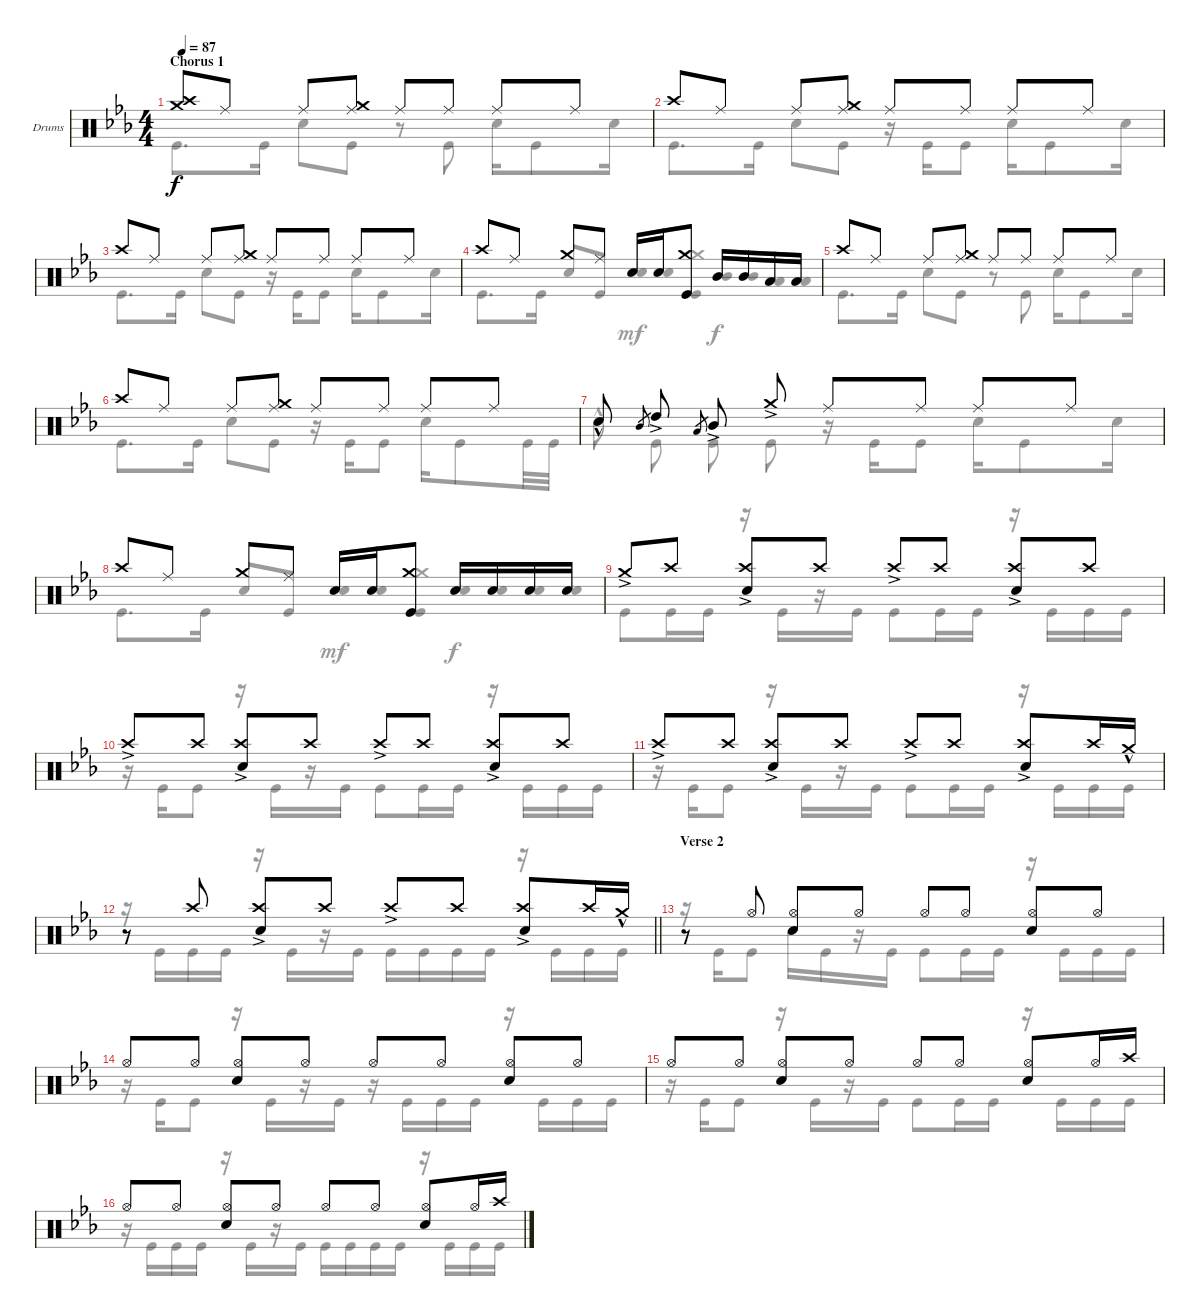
\bracketExtendMode groupsimilarinstruments
\firstSystemTrackNameOrientation horizontal
\otherSystemsTrackNameOrientation horizontal
\track ("Mike Wengren" "Drums") {instrument percussion}
\staff {score}
\articulation defaults
\voice
\ts (4 4)
\section ("" "Chorus 1")
\tempo 87
\clef neutral
\ks cminor
("Crash high (hit)" "Crash medium (hit)").8{dy f} "Ride (middle)".8 "Ride (middle)".8 ("Crash medium (hit)" "Ride (middle)").8 "Ride (middle)".8 "Ride (middle)".8 "Ride (middle)".8 "Ride (middle)".8 |
"Crash high (hit)".8 "Ride (middle)".8 "Ride (middle)".8 ("Crash medium (hit)" "Ride (middle)").8 "Ride (middle)".8 "Ride (middle)".8 "Ride (middle)".8 "Ride (middle)".8 |
"Crash high (hit)".8 "Ride (middle)".8 "Ride (middle)".8 ("Crash medium (hit)" "Ride (middle)").8 "Ride (middle)".8 "Ride (middle)".8 "Ride (middle)".8 "Ride (middle)".8 |
"Crash high (hit)".8 "Ride (middle)".8 "Crash medium (hit)".8 "Ride (middle)".8 "Snare (hit) 2".16 "Snare (hit) 2".16 ("Crash medium (hit)" "Kick (hit)").8 "Mid Tom (hit)".16 "Mid Tom (hit)".16 "Low Tom (hit)".16 "Low Tom (hit)".16 |
"Crash high (hit)".8 "Ride (middle)".8 "Ride (middle)".8 ("Crash medium (hit)" "Ride (middle)").8 "Ride (middle)".8 "Ride (middle)".8 "Ride (middle)".8 "Ride (middle)".8 |
"Crash high (hit)".8 "Ride (middle)".8 "Ride (middle)".8 ("Crash medium (hit)" "Ride (middle)").8 "Ride (middle)".8 "Ride (middle)".8 "Ride (middle)".8 "Ride (middle)".8 |
"Snare (hit) 2"{hac}.8{beam split} "Mid Tom (hit)".8{gr beam split} "High Tom (hit)"{ac}.8 "Low Tom (hit)".8{gr} "Mid Tom (hit)"{ac}.8{beam split} "Crash medium (hit)"{ac}.8 "Ride (middle)".8 "Ride (middle)".8 "Ride (middle)".8 "Ride (middle)".8 |
"Crash high (hit)".8 "Ride (middle)".8 "Crash medium (hit)".8 "Ride (middle)".8 "Snare (hit) 2".16 "Snare (hit) 2".16 ("Crash medium (hit)" "Kick (hit)").8 "Snare (hit) 2".16 "Snare (hit) 2".16 "Snare (hit) 2".16 "Snare (hit) 2".16 |
"Crash medium (hit)"{ac}.8 "Crash high (hit)".8 ("Crash high (hit)"{ac} "Snare (hit) 2").8 "Crash high (hit)".8 "Crash high (hit)"{ac}.8 "Crash high (hit)".8 ("Crash high (hit)"{ac} "Snare (hit) 2").8 "Crash high (hit)".8 |
"Crash high (hit)"{ac}.8 "Crash high (hit)".8 ("Crash high (hit)"{ac} "Snare (hit) 2").8 "Crash high (hit)".8 "Crash high (hit)"{ac}.8 "Crash high (hit)".8 ("Crash high (hit)"{ac} "Snare (hit) 2").8 "Crash high (hit)".8 |
"Crash high (hit)"{ac}.8 "Crash high (hit)".8 ("Crash high (hit)"{ac} "Snare (hit) 2").8 "Crash high (hit)".8 "Crash high (hit)"{ac}.8 "Crash high (hit)".8 ("Crash high (hit)"{ac} "Snare (hit) 2").8 "Crash high (hit)".16 "Crash medium (hit)"{hac}.16 |
\barLineRight lightlight
r.8 "Crash high (hit)".8 ("Crash high (hit)"{ac} "Snare (hit) 2").8 "Crash high (hit)".8 "Crash high (hit)"{ac}.8 "Crash high (hit)".8 ("Crash high (hit)"{ac} "Snare (hit) 2").8 "Crash high (hit)".16 "Crash medium (hit)"{hac}.16 |
\section ("" "Verse 2")
r.8 "Hi-Hat (open)".8 ("Hi-Hat (open)" "Snare (hit) 2").8 "Hi-Hat (open)".8 "Hi-Hat (open)".8 "Hi-Hat (open)".8 ("Hi-Hat (open)" "Snare (hit) 2").8 "Hi-Hat (open)".8 |
"Hi-Hat (open)".8 "Hi-Hat (open)".8 ("Hi-Hat (open)" "Snare (hit) 2").8 "Hi-Hat (open)".8 "Hi-Hat (open)".8 "Hi-Hat (open)".8 ("Hi-Hat (open)" "Snare (hit) 2").8 "Hi-Hat (open)".8 |
"Hi-Hat (open)".8 "Hi-Hat (open)".8 ("Hi-Hat (open)" "Snare (hit) 2").8 "Hi-Hat (open)".8 "Hi-Hat (open)".8 "Hi-Hat (open)".8 ("Hi-Hat (open)" "Snare (hit) 2").8 "Hi-Hat (open)".16 "Crash high (hit)".16 |
"Hi-Hat (open)".8 "Hi-Hat (open)".8 ("Hi-Hat (open)" "Snare (hit) 2").8 "Hi-Hat (open)".8 "Hi-Hat (open)".8 "Hi-Hat (open)".8 ("Hi-Hat (open)" "Snare (hit) 2").8 "Hi-Hat (open)".16 "Crash high (hit)".16
\voice
\clef neutral
\ottava regular
\simile none
\ks cminor "Kick (hit)".8{d dy f} "Kick (hit)".16 "Snare (hit) 2".8 "Kick (hit)".8
r.8 "Kick (hit)".8 "Snare (hit) 2".16 "Kick (hit)".8 "Snare (hit) 2".16 |
"Kick (hit)".8{d} "Kick (hit)".16 "Snare (hit) 2".8 "Kick (hit)".8 r.16 "Kick (hit)".16 "Kick (hit)".8 "Snare (hit) 2".16 "Kick (hit)".8 "Snare (hit) 2".16 |
"Kick (hit)".8{d} "Kick (hit)".16 "Snare (hit) 2".8 "Kick (hit)".8 r.16 "Kick (hit)".16 "Kick (hit)".8 "Snare (hit) 2".16 "Kick (hit)".8 "Snare (hit) 2".16 |
"Kick (hit)".8{d} "Kick (hit)".16 "Snare (hit) 2".8 "Kick (hit)".8 "Snare (hit) 2".16{dy mf beam invert} "Snare (hit) 2".16 ("Crash medium (hit)" "Kick (hit)").8 "Mid Tom (hit)".16{dy f beam invert} "Mid Tom (hit)".16 "Low Tom (hit)".16 "Low Tom (hit)".16 |
"Kick (hit)".8{d} "Kick (hit)".16 "Snare (hit) 2".8 "Kick (hit)".8 r.8 "Kick (hit)".8 "Snare (hit) 2".16 "Kick (hit)".8 "Snare (hit) 2".16 |
"Kick (hit)".8{d} "Kick (hit)".16 "Snare (hit) 2".8 "Kick (hit)".8 r.16 "Kick (hit)".16 "Kick (hit)".8 "Snare (hit) 2".16 "Kick (hit)".8 "Kick (hit)".32 "Kick (hit)".32 |
"Snare (hit) 2"{hac}.8{beam split} "Kick (hit)".8{beam split} "Kick (hit)".8{beam split} "Kick (hit)".8{beam split} r.16{beam merge} "Kick (hit)".16{beam merge} "Kick (hit)".8{beam split} "Snare (hit) 2".16{beam merge} "Kick (hit)".8{beam merge} "Snare (hit) 2".16{beam merge} |
"Kick (hit)".8{d} "Kick (hit)".16 "Snare (hit) 2".8 "Kick (hit)".8 "Snare (hit) 2".16{dy mf beam invert} "Snare (hit) 2".16 ("Crash medium (hit)" "Kick (hit)").8 "Snare (hit) 2".16{dy f beam invert} "Snare (hit) 2".16 "Snare (hit) 2".16 "Snare (hit) 2".16 |
"Kick (hit)".8 "Kick (hit)".16 "Kick (hit)".16 r.16 "Kick (hit)".16 r.16 "Kick (hit)".16 "Kick (hit)".8 "Kick (hit)".16 "Kick (hit)".16 r.16 "Kick (hit)".16 "Kick (hit)".16 "Kick (hit)".16 |
r.16 "Kick (hit)".16 "Kick (hit)".8 r.16 "Kick (hit)".16 r.16 "Kick (hit)".16 "Kick (hit)".8 "Kick (hit)".16 "Kick (hit)".16 r.16 "Kick (hit)".16 "Kick (hit)".16 "Kick (hit)".16 |
r.16 "Kick (hit)".16 "Kick (hit)".8 r.16 "Kick (hit)".16 r.16 "Kick (hit)".16 "Kick (hit)".8 "Kick (hit)".16 "Kick (hit)".16 r.16 "Kick (hit)".16 "Kick (hit)".16 "Kick (hit)".16 |
\barLineRight lightlight
r.16 "Kick (hit)".16 "Kick (hit)".16 "Kick (hit)".16 r.16 "Kick (hit)".16 r.16 "Kick (hit)".16 "Kick (hit)".16 "Kick (hit)".16 "Kick (hit)".16 "Kick (hit)".16 r.16 "Kick (hit)".16 "Kick (hit)".16 "Kick (hit)".16 |
r.16 "Kick (hit)".16 "Kick (hit)".8 "Snare (hit) 2".16 "Kick (hit)".16 r.16 "Kick (hit)".16 "Kick (hit)".8 "Kick (hit)".16 "Kick (hit)".16 r.16 "Kick (hit)".16 "Kick (hit)".16 "Kick (hit)".16 |
r.16 "Kick (hit)".16 "Kick (hit)".8 r.16 "Kick (hit)".16 r.16 "Kick (hit)".16 r.16 "Kick (hit)".16 "Kick (hit)".16 "Kick (hit)".16 r.16 "Kick (hit)".16 "Kick (hit)".16 "Kick (hit)".16 |
r.16 "Kick (hit)".16 "Kick (hit)".8 r.16 "Kick (hit)".16 r.16 "Kick (hit)".16 "Kick (hit)".8 "Kick (hit)".16 "Kick (hit)".16 r.16 "Kick (hit)".16 "Kick (hit)".16 "Kick (hit)".16 |
r.16 "Kick (hit)".16 "Kick (hit)".16 "Kick (hit)".16 r.16 "Kick (hit)".16 r.16 "Kick (hit)".16 "Kick (hit)".16 "Kick (hit)".16 "Kick (hit)".16 "Kick (hit)".16 r.16 "Kick (hit)".16 "Kick (hit)".16 "Kick (hit)".16
